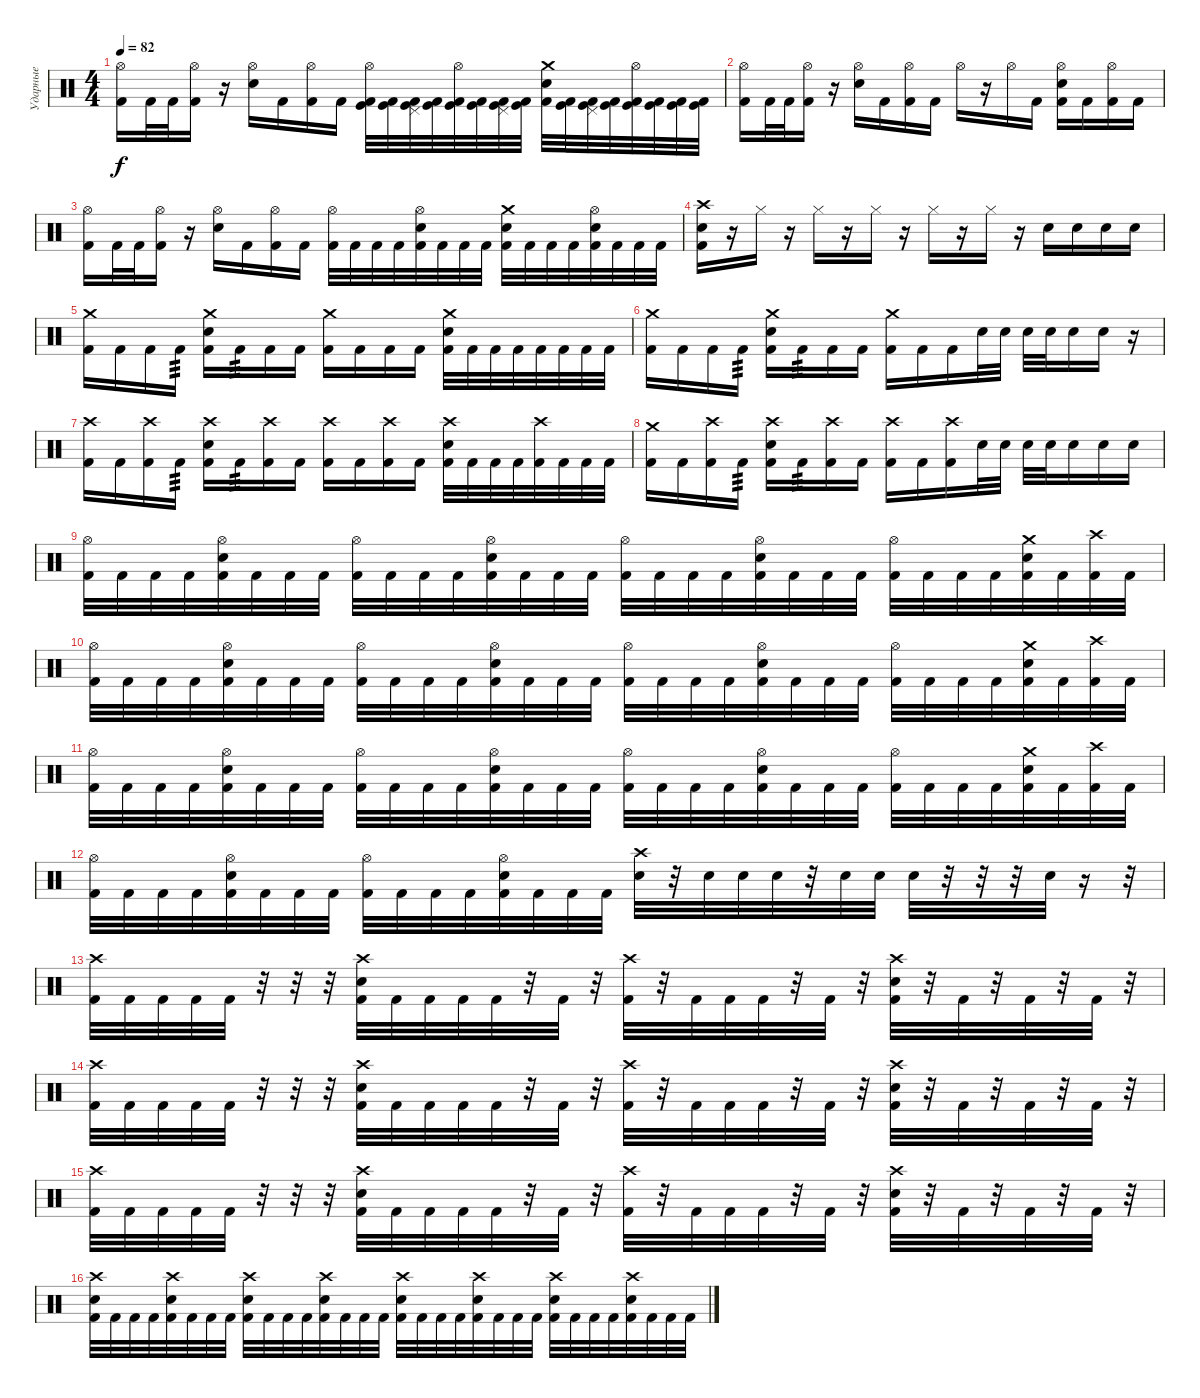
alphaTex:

\track ("Ударные" "Ударные") {instrument percussion}
\staff {score}
\articulation defaults
\ts (4 4)
\tempo 82
\clef neutral
\ks c
("Hi-Hat (open)" "Kick (hit) 2").16{dy f} "Kick (hit) 2".32 "Kick (hit) 2".32 ("Hi-Hat (open)" "Kick (hit) 2").16 r.16 ("Hi-Hat (open)" "Snare (hit) 2").16 "Kick (hit) 2".16 ("Hi-Hat (open)" "Kick (hit) 2").16 "Kick (hit) 2".16 ("Hi-Hat (open)" "Kick (hit)" "Kick (hit) 2").32 ("Kick (hit)" "Kick (hit) 2").32 ("Pedal Hi-Hat (hit)" "Kick (hit)" "Kick (hit) 2").32 ("Kick (hit)" "Kick (hit) 2").32 ("Hi-Hat (open)" "Kick (hit)" "Kick (hit) 2").32 ("Kick (hit)" "Kick (hit) 2").32 ("Pedal Hi-Hat (hit)" "Kick (hit)" "Kick (hit) 2").32 ("Kick (hit)" "Kick (hit) 2").32 ("Crash medium (hit)" "Snare (hit) 2" "Kick (hit) 2").32 ("Kick (hit)" "Kick (hit) 2").32 ("Pedal Hi-Hat (hit)" "Kick (hit)" "Kick (hit) 2").32 ("Kick (hit)" "Kick (hit) 2").32 ("Hi-Hat (open)" "Kick (hit)" "Kick (hit) 2").32 ("Kick (hit)" "Kick (hit) 2").32 ("Kick (hit)" "Kick (hit) 2").32 ("Kick (hit)" "Kick (hit) 2").32 |
("Hi-Hat (open)" "Kick (hit) 2").16 "Kick (hit) 2".32 "Kick (hit) 2".32 ("Hi-Hat (open)" "Kick (hit) 2").16 r.16 ("Hi-Hat (open)" "Snare (hit) 2").16 "Kick (hit) 2".16 ("Hi-Hat (open)" "Kick (hit) 2").16 "Kick (hit) 2".16 "Hi-Hat (open)".16 r.16 "Hi-Hat (open)".16 "Kick (hit) 2".16 ("Hi-Hat (open)" "Snare (hit) 2" "Kick (hit) 2").16 "Kick (hit) 2".16 ("Hi-Hat (open)" "Kick (hit) 2").16 "Kick (hit) 2".16 |
("Hi-Hat (open)" "Kick (hit) 2").16 "Kick (hit) 2".32 "Kick (hit) 2".32 ("Hi-Hat (open)" "Kick (hit) 2").16 r.16 ("Hi-Hat (open)" "Snare (hit) 2").16 "Kick (hit) 2".16 ("Hi-Hat (open)" "Kick (hit) 2").16 "Kick (hit) 2".16 ("Hi-Hat (open)" "Kick (hit) 2").32 "Kick (hit) 2".32 "Kick (hit) 2".32 "Kick (hit) 2".32 ("Hi-Hat (open)" "Snare (hit) 2" "Kick (hit) 2").32 "Kick (hit) 2".32 "Kick (hit) 2".32 "Kick (hit) 2".32 ("Crash medium (hit)" "Snare (hit) 2" "Kick (hit) 2").32 "Kick (hit) 2".32 "Kick (hit) 2".32 "Kick (hit) 2".32 ("Hi-Hat (open)" "Snare (hit) 2" "Kick (hit) 2").32 "Kick (hit) 2".32 "Kick (hit) 2".32 "Kick (hit) 2".32 |
("Crash high (hit)" "Kick (hit) 2" "Snare (hit) 2").16 r.16 "Hi-Hat (closed)".16 r.16 "Hi-Hat (closed)".16 r.16 "Hi-Hat (closed)".16 r.16 "Hi-Hat (closed)".16 r.16 "Hi-Hat (closed)".16 r.16 "Snare (hit) 2".16 "Snare (hit) 2".16 "Snare (hit) 2".16 "Snare (hit) 2".16 |
("Crash medium (hit)" "Kick (hit) 2").16 "Kick (hit) 2".16 "Kick (hit) 2".16 "Kick (hit) 2".16{tp 3} ("Crash medium (hit)" "Snare (hit) 2" "Kick (hit) 2").16 "Kick (hit) 2".16{tp 3} "Kick (hit) 2".16 "Kick (hit) 2".16 ("Crash medium (hit)" "Kick (hit) 2").16 "Kick (hit) 2".16 "Kick (hit) 2".16 "Kick (hit) 2".16 ("Crash medium (hit)" "Snare (hit) 2" "Kick (hit) 2").32 "Kick (hit) 2".32 "Kick (hit) 2".32 "Kick (hit) 2".32 "Kick (hit) 2".32 "Kick (hit) 2".32 "Kick (hit) 2".32 "Kick (hit) 2".32 |
("Crash medium (hit)" "Kick (hit) 2").16 "Kick (hit) 2".16 "Kick (hit) 2".16 "Kick (hit) 2".16{tp 3} ("Crash medium (hit)" "Snare (hit) 2" "Kick (hit) 2").16 "Kick (hit) 2".16{tp 3} "Kick (hit) 2".16 "Kick (hit) 2".16 ("Crash medium (hit)" "Kick (hit) 2").16 "Kick (hit) 2".16 "Kick (hit) 2".16 "Snare (hit) 2".32 "Snare (hit) 2".32 "Snare (hit) 2".32 "Snare (hit) 2".32 "Snare (hit) 2".16 "Snare (hit) 2".16 r.16 |
("Crash high (hit)" "Kick (hit) 2").16 "Kick (hit) 2".16 ("Crash high (hit)" "Kick (hit) 2").16 "Kick (hit) 2".16{tp 3} ("Crash high (hit)" "Snare (hit) 2" "Kick (hit) 2").16 "Kick (hit) 2".16{tp 3} ("Crash high (hit)" "Kick (hit) 2").16 "Kick (hit) 2".16 ("Crash high (hit)" "Kick (hit) 2").16 "Kick (hit) 2".16 ("Crash high (hit)" "Kick (hit) 2").16 "Kick (hit) 2".16 ("Crash high (hit)" "Snare (hit) 2" "Kick (hit) 2").32 "Kick (hit) 2".32 "Kick (hit) 2".32 "Kick (hit) 2".32 ("Crash high (hit)" "Kick (hit) 2").32 "Kick (hit) 2".32 "Kick (hit) 2".32 "Kick (hit) 2".32 |
("Crash medium (hit)" "Kick (hit) 2").16 "Kick (hit) 2".16 ("Crash high (hit)" "Kick (hit) 2").16 "Kick (hit) 2".16{tp 3} ("Crash high (hit)" "Snare (hit) 2" "Kick (hit) 2").16 "Kick (hit) 2".16{tp 3} ("Crash high (hit)" "Kick (hit) 2").16 "Kick (hit) 2".16 ("Crash high (hit)" "Kick (hit) 2").16 "Kick (hit) 2".16 ("Crash high (hit)" "Kick (hit) 2").16 "Snare (hit) 2".32 "Snare (hit) 2".32 "Snare (hit) 2".32 "Snare (hit) 2".32 "Snare (hit) 2".16 "Snare (hit) 2".16 "Snare (hit) 2".16 |
("Hi-Hat (open)" "Kick (hit) 2").32 "Kick (hit) 2".32 "Kick (hit) 2".32 "Kick (hit) 2".32 ("Hi-Hat (open)" "Snare (hit) 2" "Kick (hit) 2").32 "Kick (hit) 2".32 "Kick (hit) 2".32 "Kick (hit) 2".32 ("Hi-Hat (open)" "Kick (hit) 2").32 "Kick (hit) 2".32 "Kick (hit) 2".32 "Kick (hit) 2".32 ("Hi-Hat (open)" "Snare (hit) 2" "Kick (hit) 2").32 "Kick (hit) 2".32 "Kick (hit) 2".32 "Kick (hit) 2".32 ("Hi-Hat (open)" "Kick (hit) 2").32 "Kick (hit) 2".32 "Kick (hit) 2".32 "Kick (hit) 2".32 ("Hi-Hat (open)" "Snare (hit) 2" "Kick (hit) 2").32 "Kick (hit) 2".32 "Kick (hit) 2".32 "Kick (hit) 2".32 ("Hi-Hat (open)" "Kick (hit) 2").32 "Kick (hit) 2".32 "Kick (hit) 2".32 "Kick (hit) 2".32 ("Crash medium (hit)" "Snare (hit) 2" "Kick (hit) 2").32 "Kick (hit) 2".32 ("Crash high (hit)" "Kick (hit) 2").32 "Kick (hit) 2".32 |
("Hi-Hat (open)" "Kick (hit) 2").32 "Kick (hit) 2".32 "Kick (hit) 2".32 "Kick (hit) 2".32 ("Hi-Hat (open)" "Snare (hit) 2" "Kick (hit) 2").32 "Kick (hit) 2".32 "Kick (hit) 2".32 "Kick (hit) 2".32 ("Hi-Hat (open)" "Kick (hit) 2").32 "Kick (hit) 2".32 "Kick (hit) 2".32 "Kick (hit) 2".32 ("Hi-Hat (open)" "Snare (hit) 2" "Kick (hit) 2").32 "Kick (hit) 2".32 "Kick (hit) 2".32 "Kick (hit) 2".32 ("Hi-Hat (open)" "Kick (hit) 2").32 "Kick (hit) 2".32 "Kick (hit) 2".32 "Kick (hit) 2".32 ("Hi-Hat (open)" "Snare (hit) 2" "Kick (hit) 2").32 "Kick (hit) 2".32 "Kick (hit) 2".32 "Kick (hit) 2".32 ("Hi-Hat (open)" "Kick (hit) 2").32 "Kick (hit) 2".32 "Kick (hit) 2".32 "Kick (hit) 2".32 ("Crash medium (hit)" "Snare (hit) 2" "Kick (hit) 2").32 "Kick (hit) 2".32 ("Crash high (hit)" "Kick (hit) 2").32 "Kick (hit) 2".32 |
("Hi-Hat (open)" "Kick (hit) 2").32 "Kick (hit) 2".32 "Kick (hit) 2".32 "Kick (hit) 2".32 ("Hi-Hat (open)" "Snare (hit) 2" "Kick (hit) 2").32 "Kick (hit) 2".32 "Kick (hit) 2".32 "Kick (hit) 2".32 ("Hi-Hat (open)" "Kick (hit) 2").32 "Kick (hit) 2".32 "Kick (hit) 2".32 "Kick (hit) 2".32 ("Hi-Hat (open)" "Snare (hit) 2" "Kick (hit) 2").32 "Kick (hit) 2".32 "Kick (hit) 2".32 "Kick (hit) 2".32 ("Hi-Hat (open)" "Kick (hit) 2").32 "Kick (hit) 2".32 "Kick (hit) 2".32 "Kick (hit) 2".32 ("Hi-Hat (open)" "Snare (hit) 2" "Kick (hit) 2").32 "Kick (hit) 2".32 "Kick (hit) 2".32 "Kick (hit) 2".32 ("Hi-Hat (open)" "Kick (hit) 2").32 "Kick (hit) 2".32 "Kick (hit) 2".32 "Kick (hit) 2".32 ("Crash medium (hit)" "Snare (hit) 2" "Kick (hit) 2").32 "Kick (hit) 2".32 ("Crash high (hit)" "Kick (hit) 2").32 "Kick (hit) 2".32 |
("Hi-Hat (open)" "Kick (hit) 2").32 "Kick (hit) 2".32 "Kick (hit) 2".32 "Kick (hit) 2".32 ("Hi-Hat (open)" "Snare (hit) 2" "Kick (hit) 2").32 "Kick (hit) 2".32 "Kick (hit) 2".32 "Kick (hit) 2".32 ("Hi-Hat (open)" "Kick (hit) 2").32 "Kick (hit) 2".32 "Kick (hit) 2".32 "Kick (hit) 2".32 ("Hi-Hat (open)" "Snare (hit) 2" "Kick (hit) 2").32 "Kick (hit) 2".32 "Kick (hit) 2".32 "Kick (hit) 2".32 ("Crash high (hit)" "Snare (hit) 2").32 r.32 "Snare (hit) 2".32 "Snare (hit) 2".32 "Snare (hit) 2".32 r.32 "Snare (hit) 2".32 "Snare (hit) 2".32 "Snare (hit) 2".32 r.32 r.32 r.32 "Snare (hit) 2".32 r.16 r.32 |
("Crash high (hit)" "Kick (hit) 2").32 "Kick (hit) 2".32 "Kick (hit) 2".32 "Kick (hit) 2".32 "Kick (hit) 2".32 r.32 r.32 r.32 ("Crash high (hit)" "Snare (hit) 2" "Kick (hit) 2").32 "Kick (hit) 2".32 "Kick (hit) 2".32 "Kick (hit) 2".32 "Kick (hit) 2".32 r.32 "Kick (hit) 2".32 r.32 ("Crash high (hit)" "Kick (hit) 2").32 r.32 "Kick (hit) 2".32 "Kick (hit) 2".32 "Kick (hit) 2".32 r.32 "Kick (hit) 2".32 r.32 ("Crash high (hit)" "Snare (hit) 2" "Kick (hit) 2").32 r.32 "Kick (hit) 2".32 r.32 "Kick (hit) 2".32 r.32 "Kick (hit) 2".32 r.32 |
("Crash high (hit)" "Kick (hit) 2").32 "Kick (hit) 2".32 "Kick (hit) 2".32 "Kick (hit) 2".32 "Kick (hit) 2".32 r.32 r.32 r.32 ("Crash high (hit)" "Snare (hit) 2" "Kick (hit) 2").32 "Kick (hit) 2".32 "Kick (hit) 2".32 "Kick (hit) 2".32 "Kick (hit) 2".32 r.32 "Kick (hit) 2".32 r.32 ("Crash high (hit)" "Kick (hit) 2").32 r.32 "Kick (hit) 2".32 "Kick (hit) 2".32 "Kick (hit) 2".32 r.32 "Kick (hit) 2".32 r.32 ("Crash high (hit)" "Snare (hit) 2" "Kick (hit) 2").32 r.32 "Kick (hit) 2".32 r.32 "Kick (hit) 2".32 r.32 "Kick (hit) 2".32 r.32 |
("Crash high (hit)" "Kick (hit) 2").32 "Kick (hit) 2".32 "Kick (hit) 2".32 "Kick (hit) 2".32 "Kick (hit) 2".32 r.32 r.32 r.32 ("Crash high (hit)" "Snare (hit) 2" "Kick (hit) 2").32 "Kick (hit) 2".32 "Kick (hit) 2".32 "Kick (hit) 2".32 "Kick (hit) 2".32 r.32 "Kick (hit) 2".32 r.32 ("Crash high (hit)" "Kick (hit) 2").32 r.32 "Kick (hit) 2".32 "Kick (hit) 2".32 "Kick (hit) 2".32 r.32 "Kick (hit) 2".32 r.32 ("Crash high (hit)" "Snare (hit) 2" "Kick (hit) 2").32 r.32 "Kick (hit) 2".32 r.32 "Kick (hit) 2".32 r.32 "Kick (hit) 2".32 r.32 |
("Crash high (hit)" "Snare (hit) 2" "Kick (hit) 2").32 "Kick (hit) 2".32 "Kick (hit) 2".32 "Kick (hit) 2".32 ("Crash high (hit)" "Snare (hit) 2" "Kick (hit) 2").32 "Kick (hit) 2".32 "Kick (hit) 2".32 "Kick (hit) 2".32 ("Crash high (hit)" "Snare (hit) 2" "Kick (hit) 2").32 "Kick (hit) 2".32 "Kick (hit) 2".32 "Kick (hit) 2".32 ("Crash high (hit)" "Snare (hit) 2" "Kick (hit) 2").32 "Kick (hit) 2".32 "Kick (hit) 2".32 "Kick (hit) 2".32 ("Crash high (hit)" "Snare (hit) 2" "Kick (hit) 2").32 "Kick (hit) 2".32 "Kick (hit) 2".32 "Kick (hit) 2".32 ("Crash high (hit)" "Snare (hit) 2" "Kick (hit) 2").32 "Kick (hit) 2".32 "Kick (hit) 2".32 "Kick (hit) 2".32 ("Crash high (hit)" "Snare (hit) 2" "Kick (hit) 2").32 "Kick (hit) 2".32 "Kick (hit) 2".32 "Kick (hit) 2".32 ("Crash high (hit)" "Snare (hit) 2" "Kick (hit) 2").32 "Kick (hit) 2".32 "Kick (hit) 2".32 "Kick (hit) 2".32
